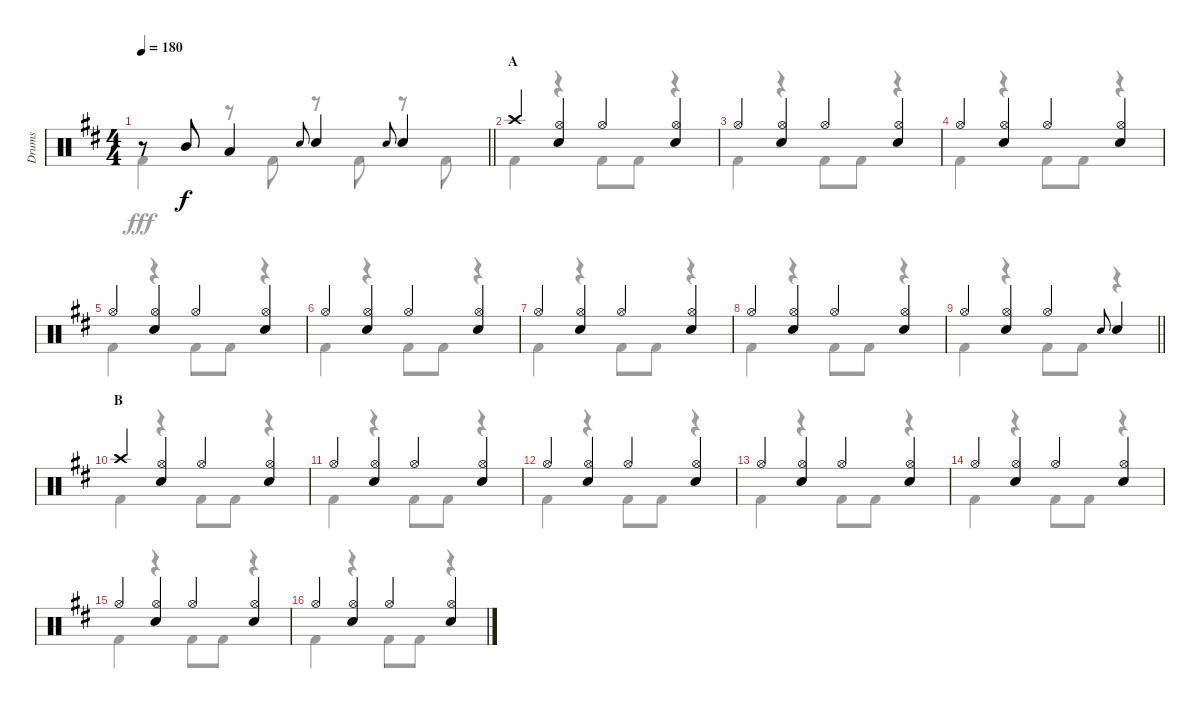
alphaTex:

\track ("Drums" "Drums") {instrument percussion}
\staff {score}
\articulation defaults
\voice
\ts (4 4)
\tempo 180
\clef neutral
\barLineRight lightlight
\ks d
r.8{dy f} "Mid Tom (hit)".8 "Low Tom (hit)".4 "Snare (hit) 2".8{gr onbeat} "Snare (hit) 2".4 "Snare (hit) 2".8{gr onbeat} "Snare (hit) 2".4 |
\section ("" "A")
"Crash high (hit)".4 ("Hi-Hat (open)" "Snare (hit) 2").4 "Hi-Hat (open)".4 ("Hi-Hat (open)" "Snare (hit) 2").4 |
"Hi-Hat (open)".4 ("Hi-Hat (open)" "Snare (hit) 2").4 "Hi-Hat (open)".4 ("Hi-Hat (open)" "Snare (hit) 2").4 |
"Hi-Hat (open)".4 ("Hi-Hat (open)" "Snare (hit) 2").4 "Hi-Hat (open)".4 ("Hi-Hat (open)" "Snare (hit) 2").4 |
"Hi-Hat (open)".4 ("Hi-Hat (open)" "Snare (hit) 2").4 "Hi-Hat (open)".4 ("Hi-Hat (open)" "Snare (hit) 2").4 |
"Hi-Hat (open)".4 ("Hi-Hat (open)" "Snare (hit) 2").4 "Hi-Hat (open)".4 ("Hi-Hat (open)" "Snare (hit) 2").4 |
"Hi-Hat (open)".4 ("Hi-Hat (open)" "Snare (hit) 2").4 "Hi-Hat (open)".4 ("Hi-Hat (open)" "Snare (hit) 2").4 |
"Hi-Hat (open)".4 ("Hi-Hat (open)" "Snare (hit) 2").4 "Hi-Hat (open)".4 ("Hi-Hat (open)" "Snare (hit) 2").4 |
\barLineRight lightlight "Hi-Hat (open)".4
("Hi-Hat (open)" "Snare (hit) 2").4 "Hi-Hat (open)".4 "Snare (hit) 2".8{gr onbeat} "Snare (hit) 2".4 |
\section ("" "B")
"Crash high (hit)".4 ("Hi-Hat (open)" "Snare (hit) 2").4 "Hi-Hat (open)".4 ("Hi-Hat (open)" "Snare (hit) 2").4 |
"Hi-Hat (open)".4 ("Hi-Hat (open)" "Snare (hit) 2").4 "Hi-Hat (open)".4 ("Hi-Hat (open)" "Snare (hit) 2").4 |
"Hi-Hat (open)".4 ("Hi-Hat (open)" "Snare (hit) 2").4 "Hi-Hat (open)".4 ("Hi-Hat (open)" "Snare (hit) 2").4 |
"Hi-Hat (open)".4 ("Hi-Hat (open)" "Snare (hit) 2").4 "Hi-Hat (open)".4 ("Hi-Hat (open)" "Snare (hit) 2").4 |
"Hi-Hat (open)".4 ("Hi-Hat (open)" "Snare (hit) 2").4 "Hi-Hat (open)".4 ("Hi-Hat (open)" "Snare (hit) 2").4 |
"Hi-Hat (open)".4 ("Hi-Hat (open)" "Snare (hit) 2").4 "Hi-Hat (open)".4 ("Hi-Hat (open)" "Snare (hit) 2").4 |
"Hi-Hat (open)".4 ("Hi-Hat (open)" "Snare (hit) 2").4 "Hi-Hat (open)".4 ("Hi-Hat (open)" "Snare (hit) 2").4
\voice
\clef neutral
\ottava regular
\simile none
\barLineRight lightlight
\ks d "Kick (hit) 2".4{dy fff}
r.8 "Kick (hit) 2".8 r.8 "Kick (hit) 2".8 r.8 "Kick (hit) 2".8 |
"Kick (hit) 2".4 r.4 "Kick (hit) 2".8 "Kick (hit) 2".8 r.4 |
"Kick (hit) 2".4 r.4 "Kick (hit) 2".8 "Kick (hit) 2".8 r.4 |
"Kick (hit) 2".4 r.4 "Kick (hit) 2".8 "Kick (hit) 2".8 r.4 |
"Kick (hit) 2".4 r.4 "Kick (hit) 2".8 "Kick (hit) 2".8 r.4 |
"Kick (hit) 2".4 r.4 "Kick (hit) 2".8 "Kick (hit) 2".8 r.4 |
"Kick (hit) 2".4 r.4 "Kick (hit) 2".8 "Kick (hit) 2".8 r.4 |
"Kick (hit) 2".4 r.4 "Kick (hit) 2".8 "Kick (hit) 2".8 r.4 |
\barLineRight lightlight "Kick (hit) 2".4
r.4 "Kick (hit) 2".8 "Kick (hit) 2".8 r.4 |
"Kick (hit) 2".4 r.4 "Kick (hit) 2".8 "Kick (hit) 2".8 r.4 |
"Kick (hit) 2".4 r.4 "Kick (hit) 2".8 "Kick (hit) 2".8 r.4 |
"Kick (hit) 2".4 r.4 "Kick (hit) 2".8 "Kick (hit) 2".8 r.4 |
"Kick (hit) 2".4 r.4 "Kick (hit) 2".8 "Kick (hit) 2".8 r.4 |
"Kick (hit) 2".4 r.4 "Kick (hit) 2".8 "Kick (hit) 2".8 r.4 |
"Kick (hit) 2".4 r.4 "Kick (hit) 2".8 "Kick (hit) 2".8 r.4 |
"Kick (hit) 2".4 r.4 "Kick (hit) 2".8 "Kick (hit) 2".8 r.4
